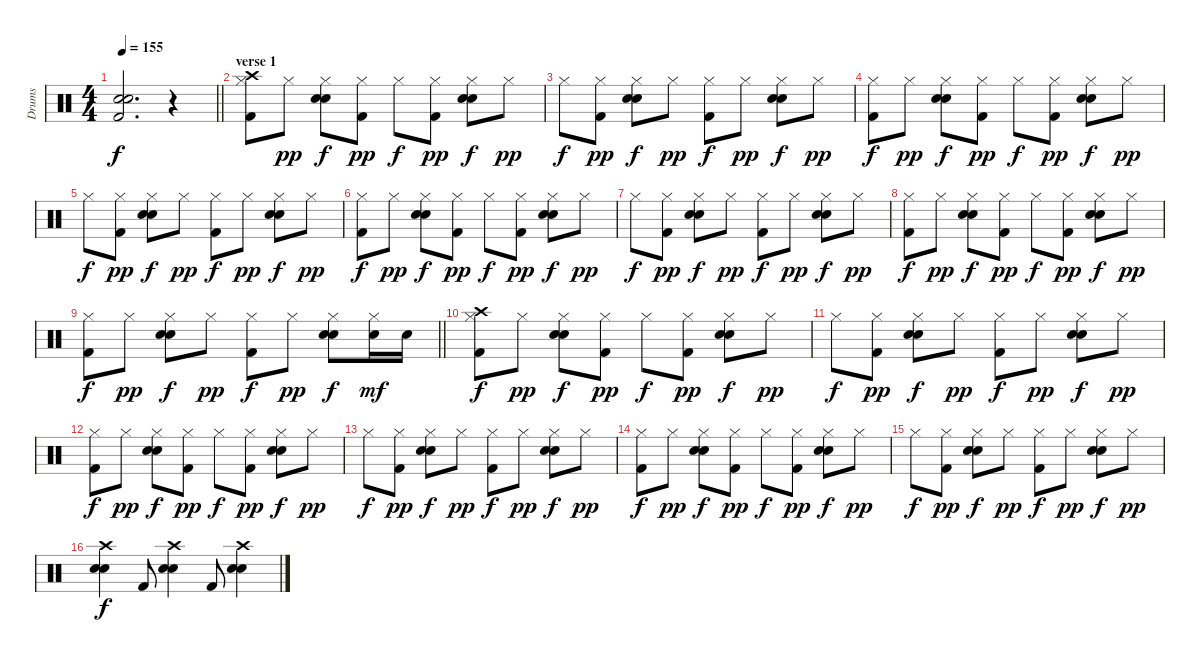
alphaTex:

\track ("Drums" "Drums") {instrument percussion}
\staff {score}
\articulation defaults
\ts (4 4)
\tempo 155
\clef neutral
\barLineRight lightlight
\ks c
("Snare (hit) 2" "Electric Snare (hit)" "Kick (hit) 2").2{d dy f} r.4 |
\section ("" "verse 1")
("Hi-Hat (closed)" "Crash high (hit)" "Kick (hit) 2").8 "Hi-Hat (closed)".8{dy pp} ("Hi-Hat (closed)" "Snare (hit) 2" "Electric Snare (hit)").8{dy f} ("Hi-Hat (closed)" "Kick (hit) 2").8{dy pp} "Hi-Hat (closed)".8{dy f} ("Hi-Hat (closed)" "Kick (hit) 2").8{dy pp} ("Hi-Hat (closed)" "Snare (hit) 2" "Electric Snare (hit)").8{dy f} "Hi-Hat (closed)".8{dy pp} |
"Hi-Hat (closed)".8{dy f} ("Hi-Hat (closed)" "Kick (hit) 2").8{dy pp} ("Hi-Hat (closed)" "Snare (hit) 2" "Electric Snare (hit)").8{dy f} "Hi-Hat (closed)".8{dy pp} ("Hi-Hat (closed)" "Kick (hit) 2").8{dy f} "Hi-Hat (closed)".8{dy pp} ("Hi-Hat (closed)" "Snare (hit) 2" "Electric Snare (hit)").8{dy f} "Hi-Hat (closed)".8{dy pp} |
("Hi-Hat (closed)" "Kick (hit) 2").8{dy f} "Hi-Hat (closed)".8{dy pp} ("Hi-Hat (closed)" "Snare (hit) 2" "Electric Snare (hit)").8{dy f} ("Hi-Hat (closed)" "Kick (hit) 2").8{dy pp} "Hi-Hat (closed)".8{dy f} ("Hi-Hat (closed)" "Kick (hit) 2").8{dy pp} ("Hi-Hat (closed)" "Snare (hit) 2" "Electric Snare (hit)").8{dy f} "Hi-Hat (closed)".8{dy pp} |
"Hi-Hat (closed)".8{dy f} ("Hi-Hat (closed)" "Kick (hit) 2").8{dy pp} ("Hi-Hat (closed)" "Snare (hit) 2" "Electric Snare (hit)").8{dy f} "Hi-Hat (closed)".8{dy pp} ("Hi-Hat (closed)" "Kick (hit) 2").8{dy f} "Hi-Hat (closed)".8{dy pp} ("Hi-Hat (closed)" "Snare (hit) 2" "Electric Snare (hit)").8{dy f} "Hi-Hat (closed)".8{dy pp} |
("Hi-Hat (closed)" "Kick (hit) 2").8{dy f} "Hi-Hat (closed)".8{dy pp} ("Hi-Hat (closed)" "Snare (hit) 2" "Electric Snare (hit)").8{dy f} ("Hi-Hat (closed)" "Kick (hit) 2").8{dy pp} "Hi-Hat (closed)".8{dy f} ("Hi-Hat (closed)" "Kick (hit) 2").8{dy pp} ("Hi-Hat (closed)" "Snare (hit) 2" "Electric Snare (hit)").8{dy f} "Hi-Hat (closed)".8{dy pp} |
"Hi-Hat (closed)".8{dy f} ("Hi-Hat (closed)" "Kick (hit) 2").8{dy pp} ("Hi-Hat (closed)" "Snare (hit) 2" "Electric Snare (hit)").8{dy f} "Hi-Hat (closed)".8{dy pp} ("Hi-Hat (closed)" "Kick (hit) 2").8{dy f} "Hi-Hat (closed)".8{dy pp} ("Hi-Hat (closed)" "Snare (hit) 2" "Electric Snare (hit)").8{dy f} "Hi-Hat (closed)".8{dy pp} |
("Hi-Hat (closed)" "Kick (hit) 2").8{dy f} "Hi-Hat (closed)".8{dy pp} ("Hi-Hat (closed)" "Snare (hit) 2" "Electric Snare (hit)").8{dy f} ("Hi-Hat (closed)" "Kick (hit) 2").8{dy pp} "Hi-Hat (closed)".8{dy f} ("Hi-Hat (closed)" "Kick (hit) 2").8{dy pp} ("Hi-Hat (closed)" "Snare (hit) 2" "Electric Snare (hit)").8{dy f} "Hi-Hat (closed)".8{dy pp} |
\barLineRight lightlight
("Hi-Hat (closed)" "Kick (hit) 2").8{dy f} "Hi-Hat (closed)".8{dy pp} ("Hi-Hat (closed)" "Snare (hit) 2" "Electric Snare (hit)").8{dy f} "Hi-Hat (closed)".8{dy pp} ("Hi-Hat (closed)" "Kick (hit) 2").8{dy f} "Hi-Hat (closed)".8{dy pp} ("Hi-Hat (closed)" "Snare (hit) 2" "Electric Snare (hit)").8{dy f} ("Hi-Hat (closed)" "Snare (hit) 2").16{dy mf} "Snare (hit) 2".16 |
\section ("" "")
("Hi-Hat (closed)" "Crash high (hit)" "Kick (hit) 2").8{dy f} "Hi-Hat (closed)".8{dy pp} ("Hi-Hat (closed)" "Snare (hit) 2" "Electric Snare (hit)").8{dy f} ("Hi-Hat (closed)" "Kick (hit) 2").8{dy pp} "Hi-Hat (closed)".8{dy f} ("Hi-Hat (closed)" "Kick (hit) 2").8{dy pp} ("Hi-Hat (closed)" "Snare (hit) 2" "Electric Snare (hit)").8{dy f} "Hi-Hat (closed)".8{dy pp} |
"Hi-Hat (closed)".8{dy f} ("Hi-Hat (closed)" "Kick (hit) 2").8{dy pp} ("Hi-Hat (closed)" "Snare (hit) 2" "Electric Snare (hit)").8{dy f} "Hi-Hat (closed)".8{dy pp} ("Hi-Hat (closed)" "Kick (hit) 2").8{dy f} "Hi-Hat (closed)".8{dy pp} ("Hi-Hat (closed)" "Snare (hit) 2" "Electric Snare (hit)").8{dy f} "Hi-Hat (closed)".8{dy pp} |
("Hi-Hat (closed)" "Kick (hit) 2").8{dy f} "Hi-Hat (closed)".8{dy pp} ("Hi-Hat (closed)" "Snare (hit) 2" "Electric Snare (hit)").8{dy f} ("Hi-Hat (closed)" "Kick (hit) 2").8{dy pp} "Hi-Hat (closed)".8{dy f} ("Hi-Hat (closed)" "Kick (hit) 2").8{dy pp} ("Hi-Hat (closed)" "Snare (hit) 2" "Electric Snare (hit)").8{dy f} "Hi-Hat (closed)".8{dy pp} |
"Hi-Hat (closed)".8{dy f} ("Hi-Hat (closed)" "Kick (hit) 2").8{dy pp} ("Hi-Hat (closed)" "Snare (hit) 2" "Electric Snare (hit)").8{dy f} "Hi-Hat (closed)".8{dy pp} ("Hi-Hat (closed)" "Kick (hit) 2").8{dy f} "Hi-Hat (closed)".8{dy pp} ("Hi-Hat (closed)" "Snare (hit) 2" "Electric Snare (hit)").8{dy f} "Hi-Hat (closed)".8{dy pp} |
("Hi-Hat (closed)" "Kick (hit) 2").8{dy f} "Hi-Hat (closed)".8{dy pp} ("Hi-Hat (closed)" "Snare (hit) 2" "Electric Snare (hit)").8{dy f} ("Hi-Hat (closed)" "Kick (hit) 2").8{dy pp} "Hi-Hat (closed)".8{dy f} ("Hi-Hat (closed)" "Kick (hit) 2").8{dy pp} ("Hi-Hat (closed)" "Snare (hit) 2" "Electric Snare (hit)").8{dy f} "Hi-Hat (closed)".8{dy pp} |
"Hi-Hat (closed)".8{dy f} ("Hi-Hat (closed)" "Kick (hit) 2").8{dy pp} ("Hi-Hat (closed)" "Snare (hit) 2" "Electric Snare (hit)").8{dy f} "Hi-Hat (closed)".8{dy pp} ("Hi-Hat (closed)" "Kick (hit) 2").8{dy f} "Hi-Hat (closed)".8{dy pp} ("Hi-Hat (closed)" "Snare (hit) 2" "Electric Snare (hit)").8{dy f} "Hi-Hat (closed)".8{dy pp} |
("Crash high (hit)" "Snare (hit) 2" "Electric Snare (hit)").4{dy f} "Kick (hit) 2".8 ("Crash high (hit)" "Snare (hit) 2" "Electric Snare (hit)").4 "Kick (hit) 2".8 ("Crash high (hit)" "Snare (hit) 2" "Electric Snare (hit)").4
